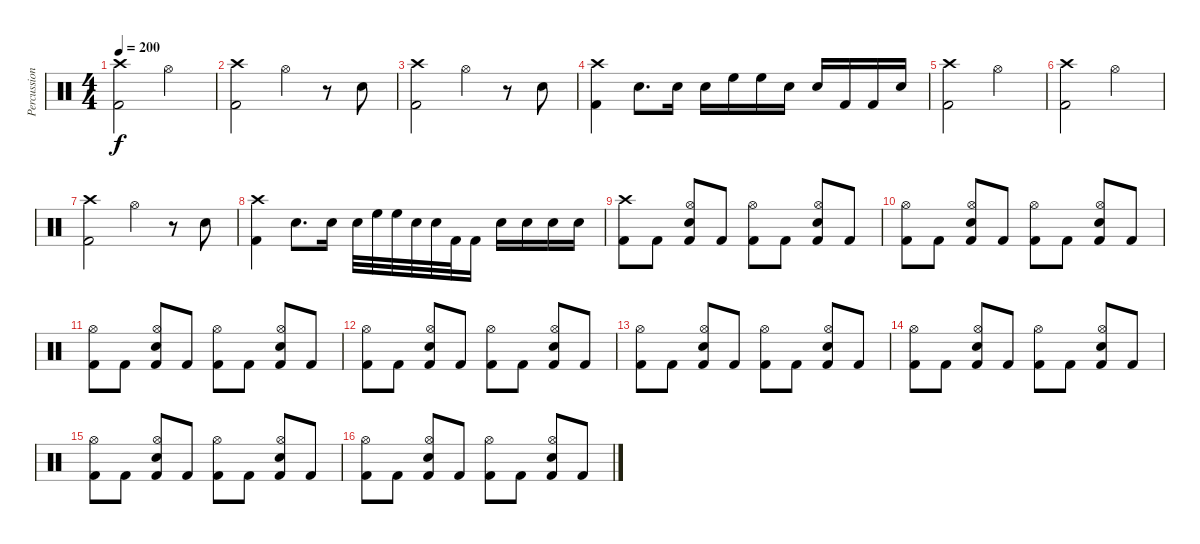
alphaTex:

\track ("Percussion" "Percussion") {instrument percussion}
\staff {score}
\articulation defaults
\ts (4 4)
\tempo 200
\clef neutral
\ks c
("Crash high (hit)" "Kick (hit) 2").2{dy f} "Hi-Hat (open)".2 |
("Crash high (hit)" "Kick (hit) 2").2 "Hi-Hat (open)".4 r.8 "Electric Snare (hit)".8 |
("Crash high (hit)" "Kick (hit) 2").2 "Hi-Hat (open)".4 r.8 "Electric Snare (hit)".8 |
("Crash high (hit)" "Kick (hit) 2").4 "Electric Snare (hit)".8{d} "Electric Snare (hit)".16 "Electric Snare (hit)".16 "High Floor Tom (hit)".16 "High Floor Tom (hit)".16 "Electric Snare (hit)".16 "Electric Snare (hit)".16 "Kick (hit) 2".16 "Kick (hit) 2".16 "Electric Snare (hit)".16 |
("Crash high (hit)" "Kick (hit) 2").2 "Hi-Hat (open)".2 |
("Crash high (hit)" "Kick (hit) 2").2 "Hi-Hat (open)".2 |
("Crash high (hit)" "Kick (hit) 2").2 "Hi-Hat (open)".4 r.8 "Electric Snare (hit)".8 |
("Crash high (hit)" "Kick (hit) 2").4 "Electric Snare (hit)".8{d} "Electric Snare (hit)".16 "Electric Snare (hit)".32 "High Floor Tom (hit)".32 "High Floor Tom (hit)".32 "Electric Snare (hit)".32 "Electric Snare (hit)".32 "Kick (hit) 2".32 "Kick (hit) 2".16 "Electric Snare (hit)".16 "Electric Snare (hit)".16 "Electric Snare (hit)".16 "Electric Snare (hit)".16 |
("Crash high (hit)" "Kick (hit) 2").8 "Kick (hit) 2".8 ("Hi-Hat (open)" "Electric Snare (hit)" "Kick (hit) 2").8 "Kick (hit) 2".8 ("Hi-Hat (open)" "Kick (hit) 2").8 "Kick (hit) 2".8 ("Hi-Hat (open)" "Electric Snare (hit)" "Kick (hit) 2").8 "Kick (hit) 2".8 |
("Hi-Hat (open)" "Kick (hit) 2").8 "Kick (hit) 2".8 ("Hi-Hat (open)" "Electric Snare (hit)" "Kick (hit) 2").8 "Kick (hit) 2".8 ("Hi-Hat (open)" "Kick (hit) 2").8 "Kick (hit) 2".8 ("Hi-Hat (open)" "Electric Snare (hit)" "Kick (hit) 2").8 "Kick (hit) 2".8 |
("Hi-Hat (open)" "Kick (hit) 2").8 "Kick (hit) 2".8 ("Hi-Hat (open)" "Electric Snare (hit)" "Kick (hit) 2").8 "Kick (hit) 2".8 ("Hi-Hat (open)" "Kick (hit) 2").8 "Kick (hit) 2".8 ("Hi-Hat (open)" "Electric Snare (hit)" "Kick (hit) 2").8 "Kick (hit) 2".8 |
("Hi-Hat (open)" "Kick (hit) 2").8 "Kick (hit) 2".8 ("Hi-Hat (open)" "Electric Snare (hit)" "Kick (hit) 2").8 "Kick (hit) 2".8 ("Hi-Hat (open)" "Kick (hit) 2").8 "Kick (hit) 2".8 ("Hi-Hat (open)" "Electric Snare (hit)" "Kick (hit) 2").8 "Kick (hit) 2".8 |
("Hi-Hat (open)" "Kick (hit) 2").8 "Kick (hit) 2".8 ("Hi-Hat (open)" "Electric Snare (hit)" "Kick (hit) 2").8 "Kick (hit) 2".8 ("Hi-Hat (open)" "Kick (hit) 2").8 "Kick (hit) 2".8 ("Hi-Hat (open)" "Electric Snare (hit)" "Kick (hit) 2").8 "Kick (hit) 2".8 |
("Hi-Hat (open)" "Kick (hit) 2").8 "Kick (hit) 2".8 ("Hi-Hat (open)" "Electric Snare (hit)" "Kick (hit) 2").8 "Kick (hit) 2".8 ("Hi-Hat (open)" "Kick (hit) 2").8 "Kick (hit) 2".8 ("Hi-Hat (open)" "Electric Snare (hit)" "Kick (hit) 2").8 "Kick (hit) 2".8 |
("Hi-Hat (open)" "Kick (hit) 2").8 "Kick (hit) 2".8 ("Hi-Hat (open)" "Electric Snare (hit)" "Kick (hit) 2").8 "Kick (hit) 2".8 ("Hi-Hat (open)" "Kick (hit) 2").8 "Kick (hit) 2".8 ("Hi-Hat (open)" "Electric Snare (hit)" "Kick (hit) 2").8 "Kick (hit) 2".8 |
("Hi-Hat (open)" "Kick (hit) 2").8 "Kick (hit) 2".8 ("Hi-Hat (open)" "Electric Snare (hit)" "Kick (hit) 2").8 "Kick (hit) 2".8 ("Hi-Hat (open)" "Kick (hit) 2").8 "Kick (hit) 2".8 ("Hi-Hat (open)" "Electric Snare (hit)" "Kick (hit) 2").8 "Kick (hit) 2".8
